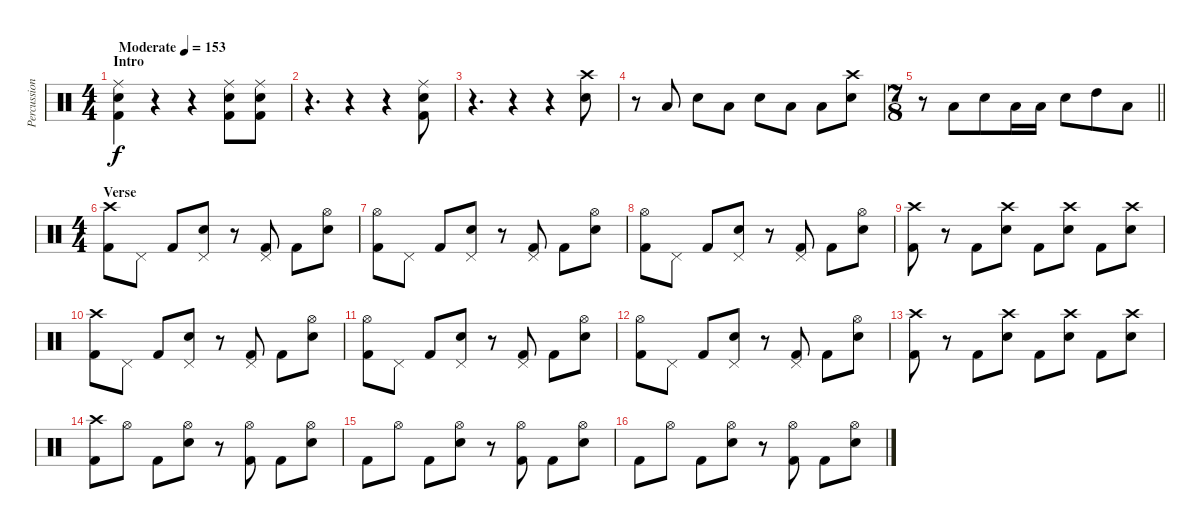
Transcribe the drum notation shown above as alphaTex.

\track ("Percussion" "Percussion") {instrument percussion}
\staff {score}
\articulation defaults
\ts (4 4)
\section ("" "Intro")
\tempo (153 "Moderate")
\clef neutral
\ks c
("Ride (middle)" "Electric Snare (hit)" "Kick (hit) 2").4{dy f} r.4 r.4 ("Ride (middle)" "Electric Snare (hit)" "Kick (hit) 2").8 ("Ride (middle)" "Electric Snare (hit)" "Kick (hit) 2").8 |
r.4{d} r.4 r.4 ("Ride (middle)" "Electric Snare (hit)" "Kick (hit) 2").8 |
r.4{d} r.4 r.4 ("Crash high (hit)" "Electric Snare (hit)").8 |
r.8 "Low Tom (hit)".8 "Electric Snare (hit)".8 "Low Tom (hit)".8 "Electric Snare (hit)".8 "Low Tom (hit)".8 "Low Tom (hit)".8 ("Crash high (hit)" "Electric Snare (hit)").8 |
\ts (7 8)
\barLineRight lightlight
r.8 "Low Tom (hit)".8 "Electric Snare (hit)".8 "Low Tom (hit)".16 "Low Tom (hit)".16 "Electric Snare (hit)".8 "High Tom (hit)".8 "Low Tom (hit)".8 |
\ts (4 4)
\section ("" "Verse")
("Crash high (hit)" "Kick (hit) 2").8 "Pedal Hi-Hat (hit)".8 "Kick (hit) 2".8 ("Pedal Hi-Hat (hit)" "Electric Snare (hit)").8 r.8 ("Pedal Hi-Hat (hit)" "Kick (hit) 2").8 "Kick (hit) 2".8 ("Hi-Hat (open)" "Electric Snare (hit)").8 |
("Hi-Hat (open)" "Kick (hit) 2").8 "Pedal Hi-Hat (hit)".8 "Kick (hit) 2".8 ("Pedal Hi-Hat (hit)" "Electric Snare (hit)").8 r.8 ("Pedal Hi-Hat (hit)" "Kick (hit) 2").8 "Kick (hit) 2".8 ("Hi-Hat (open)" "Electric Snare (hit)").8 |
("Hi-Hat (open)" "Kick (hit) 2").8 "Pedal Hi-Hat (hit)".8 "Kick (hit) 2".8 ("Pedal Hi-Hat (hit)" "Electric Snare (hit)").8 r.8 ("Pedal Hi-Hat (hit)" "Kick (hit) 2").8 "Kick (hit) 2".8 ("Hi-Hat (open)" "Electric Snare (hit)").8 |
("Crash high (hit)" "Kick (hit) 2").8 r.8 "Kick (hit) 2".8 ("Crash high (hit)" "Electric Snare (hit)").8 "Kick (hit) 2".8 ("Crash high (hit)" "Electric Snare (hit)").8 "Kick (hit) 2".8 ("Crash high (hit)" "Electric Snare (hit)").8 |
("Crash high (hit)" "Kick (hit) 2").8 "Pedal Hi-Hat (hit)".8 "Kick (hit) 2".8 ("Pedal Hi-Hat (hit)" "Electric Snare (hit)").8 r.8 ("Pedal Hi-Hat (hit)" "Kick (hit) 2").8 "Kick (hit) 2".8 ("Hi-Hat (open)" "Electric Snare (hit)").8 |
("Hi-Hat (open)" "Kick (hit) 2").8 "Pedal Hi-Hat (hit)".8 "Kick (hit) 2".8 ("Pedal Hi-Hat (hit)" "Electric Snare (hit)").8 r.8 ("Pedal Hi-Hat (hit)" "Kick (hit) 2").8 "Kick (hit) 2".8 ("Hi-Hat (open)" "Electric Snare (hit)").8 |
("Hi-Hat (open)" "Kick (hit) 2").8 "Pedal Hi-Hat (hit)".8 "Kick (hit) 2".8 ("Pedal Hi-Hat (hit)" "Electric Snare (hit)").8 r.8 ("Pedal Hi-Hat (hit)" "Kick (hit) 2").8 "Kick (hit) 2".8 ("Hi-Hat (open)" "Electric Snare (hit)").8 |
("Crash high (hit)" "Kick (hit) 2").8 r.8 "Kick (hit) 2".8 ("Crash high (hit)" "Electric Snare (hit)").8 "Kick (hit) 2".8 ("Crash high (hit)" "Electric Snare (hit)").8 "Kick (hit) 2".8 ("Crash high (hit)" "Electric Snare (hit)").8 |
("Crash high (hit)" "Kick (hit) 2").8 "Hi-Hat (open)".8 "Kick (hit) 2".8 ("Hi-Hat (open)" "Electric Snare (hit)").8 r.8 ("Hi-Hat (open)" "Kick (hit) 2").8 "Kick (hit) 2".8 ("Hi-Hat (open)" "Electric Snare (hit)").8 |
"Kick (hit) 2".8 "Hi-Hat (open)".8 "Kick (hit) 2".8 ("Hi-Hat (open)" "Electric Snare (hit)").8 r.8 ("Hi-Hat (open)" "Kick (hit) 2").8 "Kick (hit) 2".8 ("Hi-Hat (open)" "Electric Snare (hit)").8 |
"Kick (hit) 2".8 "Hi-Hat (open)".8 "Kick (hit) 2".8 ("Hi-Hat (open)" "Electric Snare (hit)").8 r.8 ("Hi-Hat (open)" "Kick (hit) 2").8 "Kick (hit) 2".8 ("Hi-Hat (open)" "Electric Snare (hit)").8
